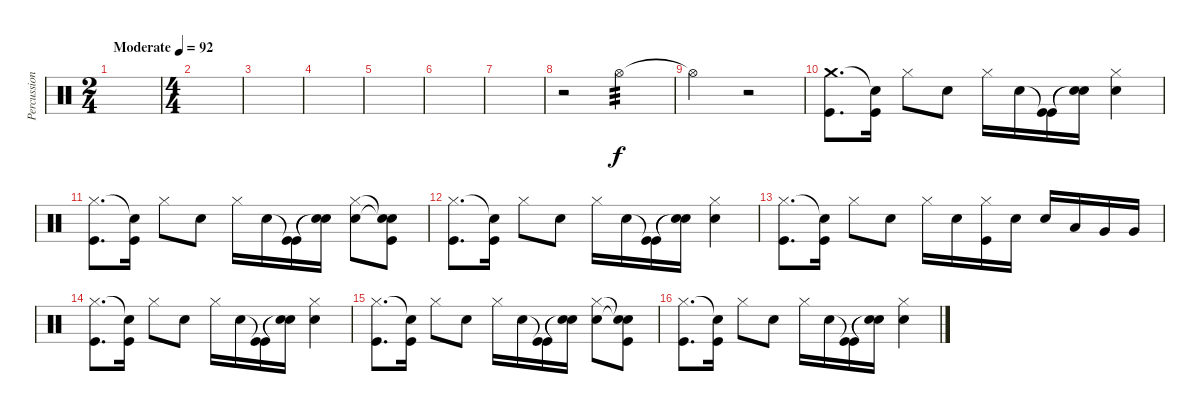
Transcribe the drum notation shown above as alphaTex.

\track ("Percussion" "Percussion") {instrument percussion}
\staff {score}
\articulation defaults
\ts (2 4)
\tempo (92 "Moderate")
\clef neutral
\ks c
|
\ts (4 4)
|
|
|
|
|
|
r.2 "Hi-Hat (open)".2{tp 3 volume 16} |
"Hi-Hat (open)"{t}.2 r.2 |
("Crash medium (hit)" "Kick (hit)").8{d} ("Snare (hit)"{t} "Kick (hit)").16 "Hi-Hat (closed)".8 "Electric Snare (hit)".8 "Hi-Hat (closed)".16 "Electric Snare (hit)".16 ("Kick (hit)"{t} "Kick (hit)").16 ("Snare (hit)"{t} "Snare (hit)"{t}).16 ("Hi-Hat (closed)" "Electric Snare (hit)").4 |
("Hi-Hat (closed)" "Kick (hit)").8{d} ("Snare (hit)"{t} "Kick (hit)").16 "Hi-Hat (closed)".8 "Electric Snare (hit)".8 "Hi-Hat (closed)".16 "Electric Snare (hit)".16 ("Kick (hit)"{t} "Kick (hit)").16 ("Snare (hit)"{t} "Snare (hit)"{t}).16 ("Hi-Hat (closed)" "Electric Snare (hit)").8 ("Snare (hit)"{t} "Snare (hit)"{t} "Kick (hit)").8 |
("Hi-Hat (closed)" "Kick (hit)").8{d} ("Snare (hit)"{t} "Kick (hit)").16 "Hi-Hat (closed)".8 "Electric Snare (hit)".8 "Hi-Hat (closed)".16 "Electric Snare (hit)".16 ("Kick (hit)"{t} "Kick (hit)").16 ("Snare (hit)"{t} "Snare (hit)"{t}).16 ("Hi-Hat (closed)" "Electric Snare (hit)").4 |
("Hi-Hat (closed)" "Kick (hit)").8{d} ("Snare (hit)"{t} "Kick (hit)").16 "Hi-Hat (closed)".8 "Electric Snare (hit)".8 "Hi-Hat (closed)".16 "Electric Snare (hit)".16 ("Hi-Hat (closed)" "Kick (hit)").16 "Electric Snare (hit)".16 "Electric Snare (hit)".16 "Low Tom (hit)".16 "Very Low Tom (hit)".16 "Very Low Tom (hit)".16 |
("Hi-Hat (closed)" "Kick (hit)").8{d} ("Snare (hit)"{t} "Kick (hit)").16 "Hi-Hat (closed)".8 "Electric Snare (hit)".8 "Hi-Hat (closed)".16 "Electric Snare (hit)".16 ("Kick (hit)"{t} "Kick (hit)").16 ("Snare (hit)"{t} "Snare (hit)"{t}).16 ("Hi-Hat (closed)" "Electric Snare (hit)").4 |
("Hi-Hat (closed)" "Kick (hit)").8{d} ("Snare (hit)"{t} "Kick (hit)").16 "Hi-Hat (closed)".8 "Electric Snare (hit)".8 "Hi-Hat (closed)".16 "Electric Snare (hit)".16 ("Kick (hit)"{t} "Kick (hit)").16 ("Snare (hit)"{t} "Snare (hit)"{t}).16 ("Hi-Hat (closed)" "Electric Snare (hit)").8 ("Snare (hit)"{t} "Snare (hit)"{t} "Kick (hit)").8 |
("Hi-Hat (closed)" "Kick (hit)").8{d} ("Snare (hit)"{t} "Kick (hit)").16 "Hi-Hat (closed)".8 "Electric Snare (hit)".8 "Hi-Hat (closed)".16 "Electric Snare (hit)".16 ("Kick (hit)"{t} "Kick (hit)").16 ("Snare (hit)"{t} "Snare (hit)"{t}).16 ("Hi-Hat (closed)" "Electric Snare (hit)").4
